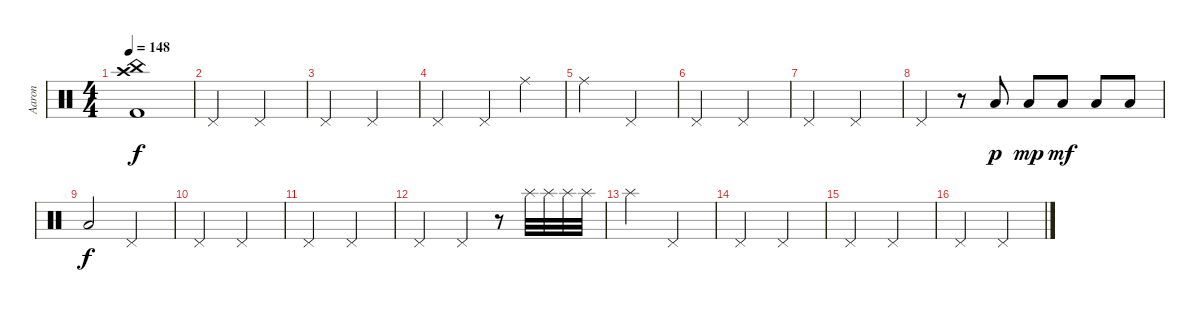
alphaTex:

\track ("Aaron" "Aaron") {instrument percussion}
\staff {score}
\articulation defaults
\ts (4 4)
\tempo 148
\clef neutral
\ks c
("Crash high (hit)" "China (hit)" "Kick (hit) 2").1{dy f} |
"Pedal Hi-Hat (hit)".2 "Pedal Hi-Hat (hit)".2 |
"Pedal Hi-Hat (hit)".2 "Pedal Hi-Hat (hit)".2 |
"Pedal Hi-Hat (hit)".2 "Pedal Hi-Hat (hit)".4 "Ride (middle)".4 |
"Ride (middle)".2 "Pedal Hi-Hat (hit)".2 |
"Pedal Hi-Hat (hit)".2 "Pedal Hi-Hat (hit)".2 |
"Pedal Hi-Hat (hit)".2 "Pedal Hi-Hat (hit)".2 |
"Pedal Hi-Hat (hit)".4 r.8 "Low Tom (hit)".8{dy p} "Low Tom (hit)".8{dy mp} "Low Tom (hit)".8{dy mf} "Low Tom (hit)".8 "Low Tom (hit)".8 |
"Low Tom (hit)".2{dy f} "Pedal Hi-Hat (hit)".2 |
"Pedal Hi-Hat (hit)".2 "Pedal Hi-Hat (hit)".2 |
"Pedal Hi-Hat (hit)".2 "Pedal Hi-Hat (hit)".2 |
"Pedal Hi-Hat (hit)".2 "Pedal Hi-Hat (hit)".4 r.8 "Splash (hit)".32 "Splash (hit)".32 "Splash (hit)".32 "Splash (hit)".32 |
"Splash (hit)".2 "Pedal Hi-Hat (hit)".2 |
"Pedal Hi-Hat (hit)".2 "Pedal Hi-Hat (hit)".2 |
"Pedal Hi-Hat (hit)".2 "Pedal Hi-Hat (hit)".2 |
"Pedal Hi-Hat (hit)".2 "Pedal Hi-Hat (hit)".2
